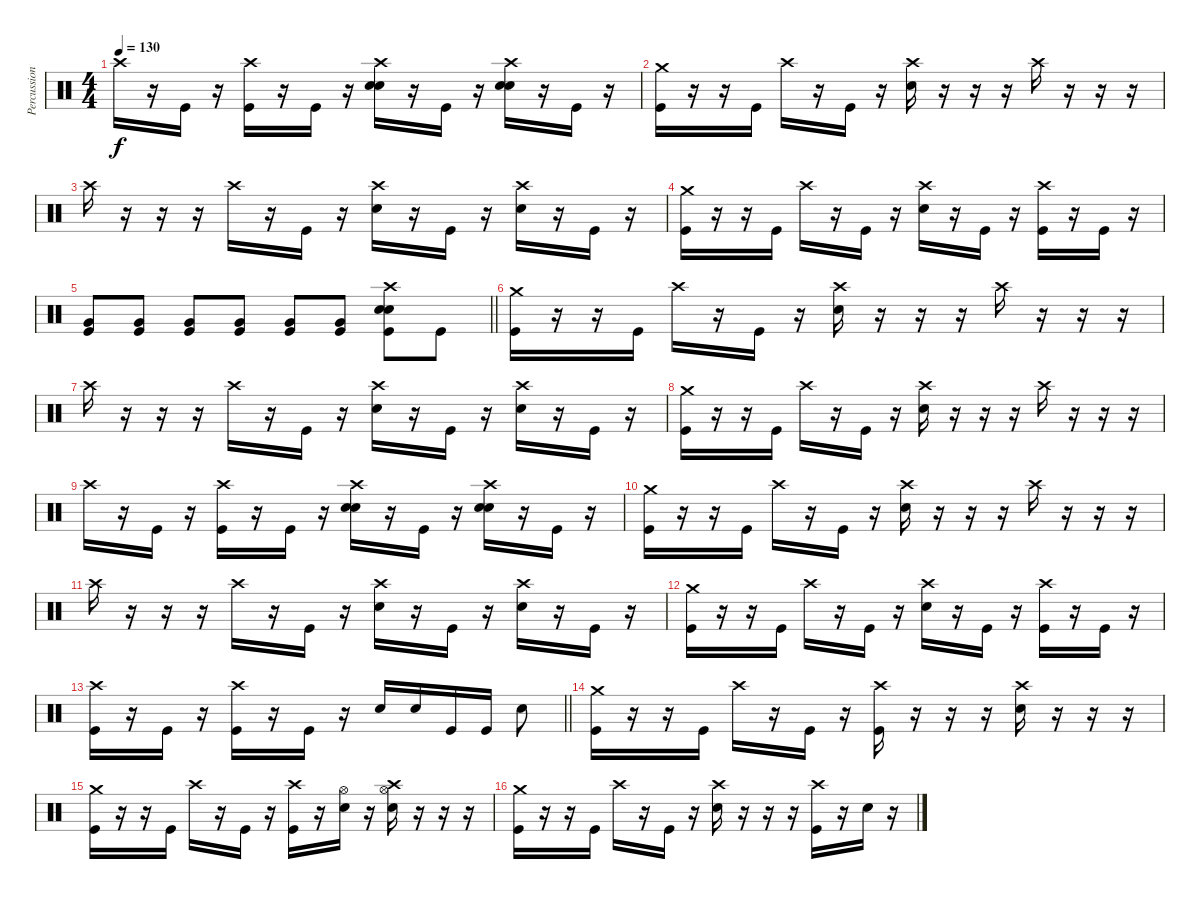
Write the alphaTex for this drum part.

\track ("Percussion" "Percussion") {instrument percussion}
\staff {score}
\articulation defaults
\ts (4 4)
\tempo 130
\clef neutral
\ks c "Crash high (hit)".16{dy f}
r.16 "Kick (hit)".16 r.16 ("Crash high (hit)" "Kick (hit)").16 r.16 "Kick (hit)".16 r.16 ("Crash high (hit)" "Snare (hit) 2" "Electric Snare (hit)").16{bd 120} r.16 "Kick (hit)".16 r.16 ("Crash high (hit)" "Snare (hit) 2" "Electric Snare (hit)").16{bd 120} r.16 "Kick (hit)".16 r.16 |
("Crash medium (hit)" "Kick (hit)").16 r.16 r.16 "Kick (hit)".16 "Crash high (hit)".16 r.16 "Kick (hit)".16 r.16 ("Crash high (hit)" "Electric Snare (hit)").16 r.16 r.16 r.16 "Crash high (hit)".16 r.16 r.16 r.16 |
"Crash high (hit)".16 r.16 r.16 r.16 "Crash high (hit)".16 r.16 "Kick (hit)".16 r.16 ("Crash high (hit)" "Electric Snare (hit)").16 r.16 "Kick (hit)".16 r.16 ("Crash high (hit)" "Electric Snare (hit)").16 r.16 "Kick (hit)".16 r.16 |
("Crash medium (hit)" "Kick (hit)").16 r.16 r.16 "Kick (hit)".16 "Crash high (hit)".16 r.16 "Kick (hit)".16 r.16 ("Crash high (hit)" "Electric Snare (hit)").16 r.16 "Kick (hit)".16 r.16 ("Crash high (hit)" "Kick (hit)").16 r.16 "Kick (hit)".16 r.16 |
\barLineRight lightlight
("Very Low Tom (hit)" "Kick (hit)").8 ("Very Low Tom (hit)" "Kick (hit)").8 ("Very Low Tom (hit)" "Kick (hit)").8 ("Very Low Tom (hit)" "Kick (hit)").8 ("Very Low Tom (hit)" "Kick (hit)").8 ("Very Low Tom (hit)" "Kick (hit)").8 ("Crash high (hit)" "Snare (hit) 2" "Electric Snare (hit)" "Kick (hit)").8{bd 120} "Kick (hit)".8 |
\section ("" "")
("Crash medium (hit)" "Kick (hit)").16 r.16 r.16 "Kick (hit)".16 "Crash high (hit)".16 r.16 "Kick (hit)".16 r.16 ("Crash high (hit)" "Electric Snare (hit)").16 r.16 r.16 r.16 "Crash high (hit)".16 r.16 r.16 r.16 |
"Crash high (hit)".16 r.16 r.16 r.16 "Crash high (hit)".16 r.16 "Kick (hit)".16 r.16 ("Crash high (hit)" "Electric Snare (hit)").16 r.16 "Kick (hit)".16 r.16 ("Crash high (hit)" "Electric Snare (hit)").16 r.16 "Kick (hit)".16 r.16 |
("Crash medium (hit)" "Kick (hit)").16 r.16 r.16 "Kick (hit)".16 "Crash high (hit)".16 r.16 "Kick (hit)".16 r.16 ("Crash high (hit)" "Electric Snare (hit)").16 r.16 r.16 r.16 "Crash high (hit)".16 r.16 r.16 r.16 |
"Crash high (hit)".16 r.16 "Kick (hit)".16 r.16 ("Crash high (hit)" "Kick (hit)").16 r.16 "Kick (hit)".16 r.16 ("Crash high (hit)" "Snare (hit) 2" "Electric Snare (hit)").16{bd 120} r.16 "Kick (hit)".16 r.16 ("Crash high (hit)" "Snare (hit) 2" "Electric Snare (hit)").16{bd 120} r.16 "Kick (hit)".16 r.16 |
("Crash medium (hit)" "Kick (hit)").16 r.16 r.16 "Kick (hit)".16 "Crash high (hit)".16 r.16 "Kick (hit)".16 r.16 ("Crash high (hit)" "Electric Snare (hit)").16 r.16 r.16 r.16 "Crash high (hit)".16 r.16 r.16 r.16 |
"Crash high (hit)".16 r.16 r.16 r.16 "Crash high (hit)".16 r.16 "Kick (hit)".16 r.16 ("Crash high (hit)" "Electric Snare (hit)").16 r.16 "Kick (hit)".16 r.16 ("Crash high (hit)" "Electric Snare (hit)").16 r.16 "Kick (hit)".16 r.16 |
("Crash medium (hit)" "Kick (hit)").16 r.16 r.16 "Kick (hit)".16 "Crash high (hit)".16 r.16 "Kick (hit)".16 r.16 ("Crash high (hit)" "Electric Snare (hit)").16 r.16 "Kick (hit)".16 r.16 ("Crash high (hit)" "Kick (hit)").16 r.16 "Kick (hit)".16 r.16 |
\barLineRight lightlight
("Crash high (hit)" "Kick (hit)").16 r.16 "Kick (hit)".16 r.16 ("Crash high (hit)" "Kick (hit)").16 r.16 "Kick (hit)".16 r.16 "Electric Snare (hit)".16 "Electric Snare (hit)".16 "Kick (hit)".16 "Kick (hit)".16 "Electric Snare (hit)".8 |
\section ("" "")
("Crash medium (hit)" "Kick (hit)").16 r.16 r.16 "Kick (hit)".16 "Crash high (hit)".16 r.16 "Kick (hit)".16 r.16 ("Crash high (hit)" "Kick (hit)").16 r.16 r.16 r.16 ("Crash high (hit)" "Electric Snare (hit)").16 r.16 r.16 r.16 |
("Crash medium (hit)" "Kick (hit)").16 r.16 r.16 "Kick (hit)".16 "Crash high (hit)".16 r.16 "Kick (hit)".16 r.16 ("Crash high (hit)" "Kick (hit)").16 r.16 ("Hi-Hat (open)" "Electric Snare (hit)").16 r.16 ("Hi-Hat (open)" "Crash high (hit)" "Electric Snare (hit)").16 r.16 r.16 r.16 |
("Crash medium (hit)" "Kick (hit)").16 r.16 r.16 "Kick (hit)".16 "Crash high (hit)".16 r.16 "Kick (hit)".16 r.16 ("Crash high (hit)" "Electric Snare (hit)").16 r.16 r.16 r.16 ("Crash high (hit)" "Kick (hit)").16 r.16 "Electric Snare (hit)".16 r.16
